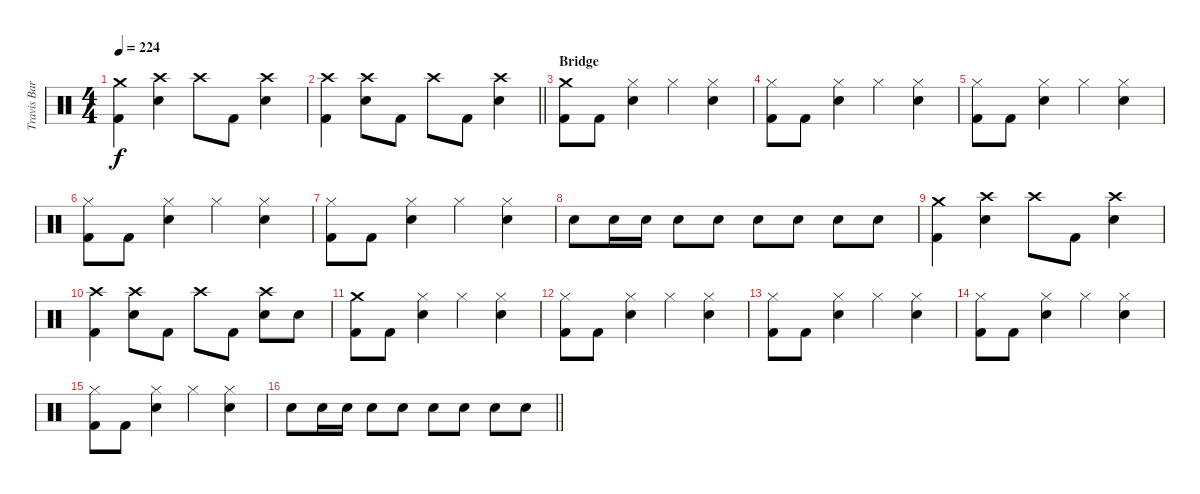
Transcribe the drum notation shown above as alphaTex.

\track ("Travis Barker - Drums" "Travis Bar") {instrument percussion}
\staff {score}
\articulation defaults
\ts (4 4)
\tempo 224
\clef neutral
\ks c
("Crash medium (hit)" "Kick (hit) 2").4{dy f} ("Crash high (hit)" "Electric Snare (hit)").4 "Crash high (hit)".8 "Kick (hit) 2".8 ("Crash high (hit)" "Electric Snare (hit)").4 |
\barLineRight lightlight
("Crash high (hit)" "Kick (hit) 2").4 ("Crash high (hit)" "Electric Snare (hit)").8 "Kick (hit) 2".8 "Crash high (hit)".8 "Kick (hit) 2".8 ("Crash high (hit)" "Electric Snare (hit)").4 |
\section ("" "Bridge")
("Crash medium (hit)" "Kick (hit) 2").8 "Kick (hit) 2".8 ("Hi-Hat (closed)" "Electric Snare (hit)").4 "Hi-Hat (closed)".4 ("Hi-Hat (closed)" "Electric Snare (hit)").4 |
("Hi-Hat (closed)" "Kick (hit) 2").8 "Kick (hit) 2".8 ("Hi-Hat (closed)" "Electric Snare (hit)").4 "Hi-Hat (closed)".4 ("Hi-Hat (closed)" "Electric Snare (hit)").4 |
("Hi-Hat (closed)" "Kick (hit) 2").8 "Kick (hit) 2".8 ("Hi-Hat (closed)" "Electric Snare (hit)").4 "Hi-Hat (closed)".4 ("Hi-Hat (closed)" "Electric Snare (hit)").4 |
("Hi-Hat (closed)" "Kick (hit) 2").8 "Kick (hit) 2".8 ("Hi-Hat (closed)" "Electric Snare (hit)").4 "Hi-Hat (closed)".4 ("Hi-Hat (closed)" "Electric Snare (hit)").4 |
("Hi-Hat (closed)" "Kick (hit) 2").8 "Kick (hit) 2".8 ("Hi-Hat (closed)" "Electric Snare (hit)").4 "Hi-Hat (closed)".4 ("Hi-Hat (closed)" "Electric Snare (hit)").4 |
"Electric Snare (hit)".8 "Electric Snare (hit)".16 "Electric Snare (hit)".16 "Electric Snare (hit)".8 "Electric Snare (hit)".8 "Electric Snare (hit)".8 "Electric Snare (hit)".8 "Electric Snare (hit)".8 "Electric Snare (hit)".8 |
("Crash medium (hit)" "Kick (hit) 2").4 ("Crash high (hit)" "Electric Snare (hit)").4 "Crash high (hit)".8 "Kick (hit) 2".8 ("Crash high (hit)" "Electric Snare (hit)").4 |
("Crash high (hit)" "Kick (hit) 2").4 ("Crash high (hit)" "Electric Snare (hit)").8 "Kick (hit) 2".8 "Crash high (hit)".8 "Kick (hit) 2".8 ("Crash high (hit)" "Electric Snare (hit)").8 "Electric Snare (hit)".8 |
("Crash medium (hit)" "Kick (hit) 2").8 "Kick (hit) 2".8 ("Hi-Hat (closed)" "Electric Snare (hit)").4 "Hi-Hat (closed)".4 ("Hi-Hat (closed)" "Electric Snare (hit)").4 |
("Hi-Hat (closed)" "Kick (hit) 2").8 "Kick (hit) 2".8 ("Hi-Hat (closed)" "Electric Snare (hit)").4 "Hi-Hat (closed)".4 ("Hi-Hat (closed)" "Electric Snare (hit)").4 |
("Hi-Hat (closed)" "Kick (hit) 2").8 "Kick (hit) 2".8 ("Hi-Hat (closed)" "Electric Snare (hit)").4 "Hi-Hat (closed)".4 ("Hi-Hat (closed)" "Electric Snare (hit)").4 |
("Hi-Hat (closed)" "Kick (hit) 2").8 "Kick (hit) 2".8 ("Hi-Hat (closed)" "Electric Snare (hit)").4 "Hi-Hat (closed)".4 ("Hi-Hat (closed)" "Electric Snare (hit)").4 |
("Hi-Hat (closed)" "Kick (hit) 2").8 "Kick (hit) 2".8 ("Hi-Hat (closed)" "Electric Snare (hit)").4 "Hi-Hat (closed)".4 ("Hi-Hat (closed)" "Electric Snare (hit)").4 |
\barLineRight lightlight "Electric Snare (hit)".8 "Electric Snare (hit)".16 "Electric Snare (hit)".16 "Electric Snare (hit)".8 "Electric Snare (hit)".8 "Electric Snare (hit)".8 "Electric Snare (hit)".8 "Electric Snare (hit)".8 "Electric Snare (hit)".8
